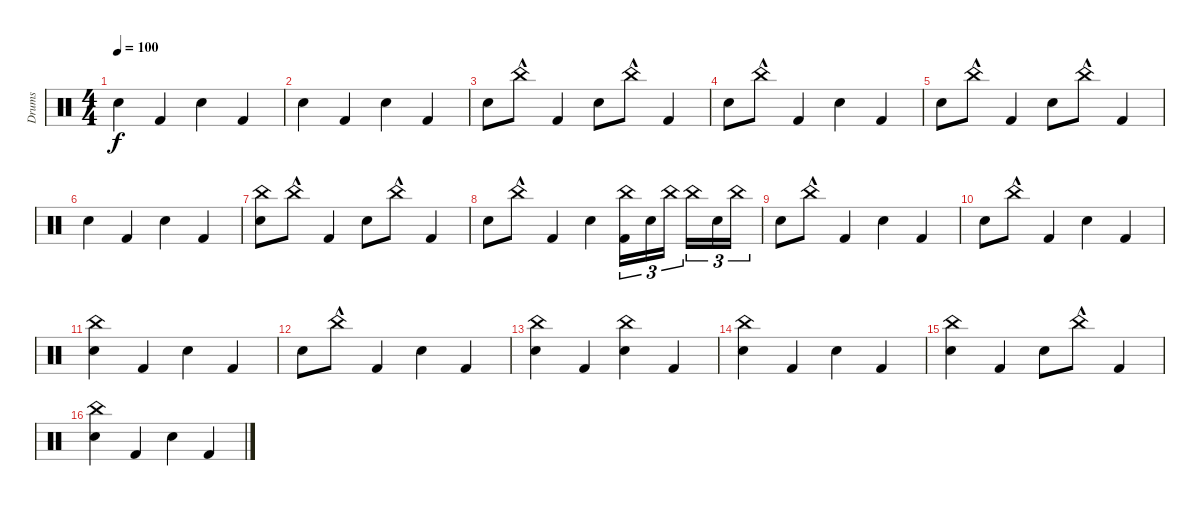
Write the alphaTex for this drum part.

\track ("Drums" "Drums") {instrument percussion}
\staff {score}
\articulation defaults
\ts (4 4)
\tempo 100
\clef neutral
\ks c "Snare (hit) 2".4{dy f} "Kick (hit) 2".4 "Snare (hit) 2".4 "Kick (hit) 2".4
|
"Snare (hit) 2".4 "Kick (hit) 2".4 "Snare (hit) 2".4 "Kick (hit) 2".4 |
"Snare (hit) 2".8 "China (hit)"{hac}.8 "Kick (hit) 2".4 "Snare (hit) 2".8 "China (hit)"{hac}.8 "Kick (hit) 2".4 |
"Snare (hit) 2".8 "China (hit)"{hac}.8 "Kick (hit) 2".4 "Snare (hit) 2".4 "Kick (hit) 2".4 |
"Snare (hit) 2".8 "China (hit)"{hac}.8 "Kick (hit) 2".4 "Snare (hit) 2".8 "China (hit)"{hac}.8 "Kick (hit) 2".4 |
"Snare (hit) 2".4 "Kick (hit) 2".4 "Snare (hit) 2".4 "Kick (hit) 2".4 |
("China (hit)" "Snare (hit) 2").8 "China (hit)"{hac}.8 "Kick (hit) 2".4 "Snare (hit) 2".8 "China (hit)"{hac}.8 "Kick (hit) 2".4 |
"Snare (hit) 2".8 "China (hit)"{hac}.8 "Kick (hit) 2".4 "Snare (hit) 2".4 ("China (hit)" "Kick (hit) 2").16{tu (3 2)} "Snare (hit) 2".16{tu (3 2)} "China (hit)".16{tu (3 2)} "China (hit)".16{tu (3 2)} "Snare (hit) 2".16{tu (3 2)} "China (hit)".16{tu (3 2)} |
"Snare (hit) 2".8 "China (hit)"{hac}.8 "Kick (hit) 2".4 "Snare (hit) 2".4 "Kick (hit) 2".4 |
"Snare (hit) 2".8 "China (hit)"{hac}.8 "Kick (hit) 2".4 "Snare (hit) 2".4 "Kick (hit) 2".4 |
("Snare (hit) 2" "China (hit)").4 "Kick (hit) 2".4 "Snare (hit) 2".4 "Kick (hit) 2".4 |
"Snare (hit) 2".8 "China (hit)"{hac}.8 "Kick (hit) 2".4 "Snare (hit) 2".4 "Kick (hit) 2".4 |
("China (hit)" "Snare (hit) 2").4 "Kick (hit) 2".4 ("China (hit)" "Snare (hit) 2").4 "Kick (hit) 2".4 |
("China (hit)" "Snare (hit) 2").4 "Kick (hit) 2".4 "Snare (hit) 2".4 "Kick (hit) 2".4 |
("China (hit)" "Snare (hit) 2").4 "Kick (hit) 2".4 "Snare (hit) 2".8 "China (hit)"{hac}.8 "Kick (hit) 2".4 |
("Snare (hit) 2" "China (hit)").4 "Kick (hit) 2".4 "Snare (hit) 2".4 "Kick (hit) 2".4
